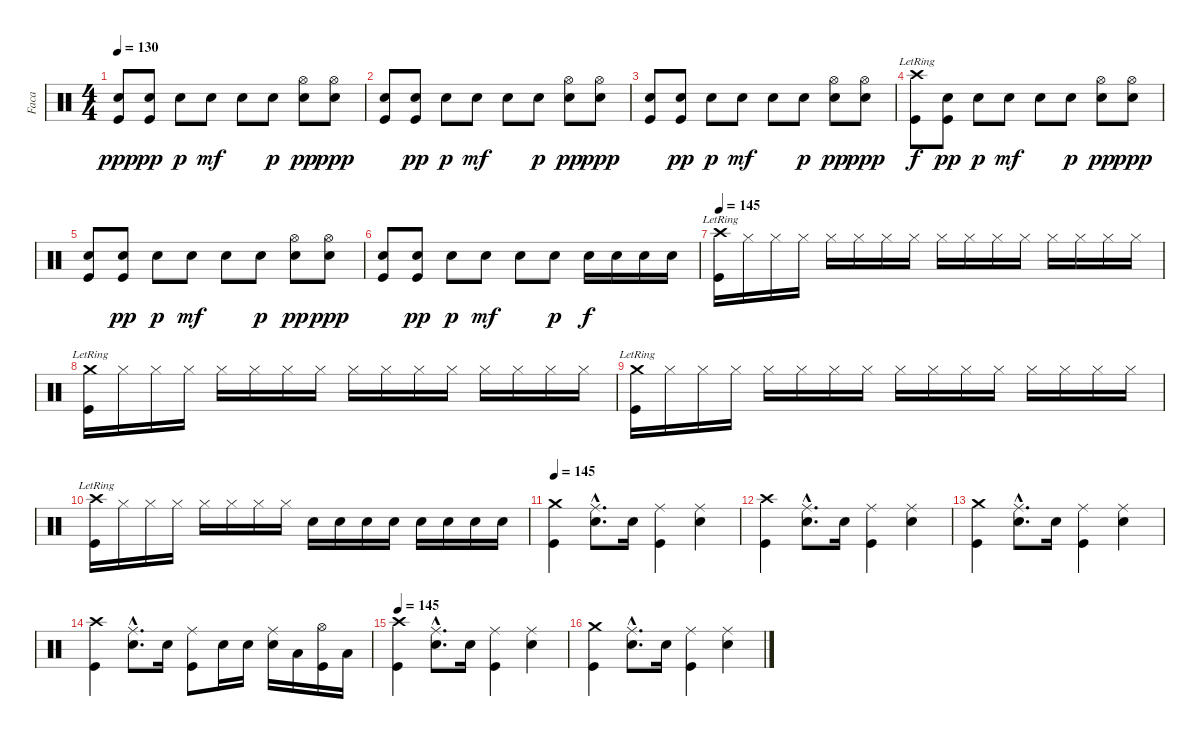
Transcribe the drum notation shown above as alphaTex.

\track ("Faca" "Faca") {instrument percussion}
\staff {score}
\articulation defaults
\ts (4 4)
\tempo 130
\clef neutral
\ks c
("Snare (hit) 2" "Kick (hit)").8{dy ppp} ("Snare (hit) 2" "Kick (hit)").8{dy pp} "Snare (hit) 2".8{dy p} "Snare (hit) 2".8{dy mf} "Snare (hit) 2".8 "Snare (hit) 2".8{dy p} ("Hi-Hat (open)" "Snare (hit) 2").8{dy pp} ("Hi-Hat (open)" "Snare (hit) 2").8{dy ppp} |
("Snare (hit) 2" "Kick (hit)").8 ("Snare (hit) 2" "Kick (hit)").8{dy pp} "Snare (hit) 2".8{dy p} "Snare (hit) 2".8{dy mf} "Snare (hit) 2".8 "Snare (hit) 2".8{dy p} ("Hi-Hat (open)" "Snare (hit) 2").8{dy pp} ("Hi-Hat (open)" "Snare (hit) 2").8{dy ppp} |
("Snare (hit) 2" "Kick (hit)").8 ("Snare (hit) 2" "Kick (hit)").8{dy pp} "Snare (hit) 2".8{dy p} "Snare (hit) 2".8{dy mf} "Snare (hit) 2".8 "Snare (hit) 2".8{dy p} ("Hi-Hat (open)" "Snare (hit) 2").8{dy pp} ("Hi-Hat (open)" "Snare (hit) 2").8{dy ppp} |
("Crash high (hit)"{lr} "Kick (hit)").8{dy f} ("Snare (hit) 2" "Kick (hit)").8{dy pp} "Snare (hit) 2".8{dy p} "Snare (hit) 2".8{dy mf} "Snare (hit) 2".8 "Snare (hit) 2".8{dy p} ("Hi-Hat (open)" "Snare (hit) 2").8{dy pp} ("Hi-Hat (open)" "Snare (hit) 2").8{dy ppp} |
("Snare (hit) 2" "Kick (hit)").8 ("Snare (hit) 2" "Kick (hit)").8{dy pp} "Snare (hit) 2".8{dy p} "Snare (hit) 2".8{dy mf} "Snare (hit) 2".8 "Snare (hit) 2".8{dy p} ("Hi-Hat (open)" "Snare (hit) 2").8{dy pp} ("Hi-Hat (open)" "Snare (hit) 2").8{dy ppp} |
("Snare (hit) 2" "Kick (hit)").8 ("Snare (hit) 2" "Kick (hit)").8{dy pp} "Snare (hit) 2".8{dy p} "Snare (hit) 2".8{dy mf} "Snare (hit) 2".8 "Snare (hit) 2".8{dy p} "Snare (hit) 2".16{dy f} "Snare (hit) 2".16 "Snare (hit) 2".16 "Snare (hit) 2".16 |
\tempo 145
("Crash high (hit)"{lr} "Kick (hit)").16 "Hi-Hat (closed)".16 "Hi-Hat (closed)".16 "Hi-Hat (closed)".16 "Hi-Hat (closed)".16 "Hi-Hat (closed)".16 "Hi-Hat (closed)".16 "Hi-Hat (closed)".16 "Hi-Hat (closed)".16 "Hi-Hat (closed)".16 "Hi-Hat (closed)".16 "Hi-Hat (closed)".16 "Hi-Hat (closed)".16 "Hi-Hat (closed)".16 "Hi-Hat (closed)".16 "Hi-Hat (closed)".16 |
("Crash medium (hit)"{lr} "Kick (hit)").16 "Hi-Hat (closed)".16 "Hi-Hat (closed)".16 "Hi-Hat (closed)".16 "Hi-Hat (closed)".16 "Hi-Hat (closed)".16 "Hi-Hat (closed)".16 "Hi-Hat (closed)".16 "Hi-Hat (closed)".16 "Hi-Hat (closed)".16 "Hi-Hat (closed)".16 "Hi-Hat (closed)".16 "Hi-Hat (closed)".16 "Hi-Hat (closed)".16 "Hi-Hat (closed)".16 "Hi-Hat (closed)".16 |
("Crash medium (hit)"{lr} "Kick (hit)").16 "Hi-Hat (closed)".16 "Hi-Hat (closed)".16 "Hi-Hat (closed)".16 "Hi-Hat (closed)".16 "Hi-Hat (closed)".16 "Hi-Hat (closed)".16 "Hi-Hat (closed)".16 "Hi-Hat (closed)".16 "Hi-Hat (closed)".16 "Hi-Hat (closed)".16 "Hi-Hat (closed)".16 "Hi-Hat (closed)".16 "Hi-Hat (closed)".16 "Hi-Hat (closed)".16 "Hi-Hat (closed)".16 |
("Crash high (hit)"{lr} "Kick (hit)").16 "Hi-Hat (closed)".16 "Hi-Hat (closed)".16 "Hi-Hat (closed)".16 "Hi-Hat (closed)".16 "Hi-Hat (closed)".16 "Hi-Hat (closed)".16 "Hi-Hat (closed)".16 "Snare (hit) 2".16 "Snare (hit) 2".16 "Snare (hit) 2".16 "Snare (hit) 2".16 "Snare (hit) 2".16 "Snare (hit) 2".16 "Snare (hit) 2".16 "Snare (hit) 2".16 |
\tempo 145
("Crash medium (hit)" "Kick (hit)").4 ("Ride (middle)"{hac} "Snare (hit) 2"{hac}).8{d} "Snare (hit) 2".16 ("Ride (middle)" "Kick (hit)").4 ("Ride (middle)" "Snare (hit) 2").4 |
("Crash high (hit)" "Kick (hit)").4 ("Ride (middle)"{hac} "Snare (hit) 2"{hac}).8{d} "Snare (hit) 2".16 ("Ride (middle)" "Kick (hit)").4 ("Ride (middle)" "Snare (hit) 2").4 |
("Crash medium (hit)" "Kick (hit)").4 ("Ride (middle)"{hac} "Snare (hit) 2"{hac}).8{d} "Snare (hit) 2".16 ("Ride (middle)" "Kick (hit)").4 ("Ride (middle)" "Snare (hit) 2").4 |
("Crash high (hit)" "Kick (hit)").4 ("Ride (middle)"{hac} "Snare (hit) 2"{hac}).8{d} "Snare (hit) 2".16 ("Ride (middle)" "Kick (hit)").8 "Snare (hit) 2".16 "Snare (hit) 2".16 ("Ride (middle)" "Snare (hit) 2").16 "Low Tom (hit)".16 ("Hi-Hat (open)" "Kick (hit)").16 "Low Floor Tom (hit)".16 |
\tempo 145
("Crash high (hit)" "Kick (hit)").4 ("Ride (middle)"{hac} "Snare (hit) 2"{hac}).8{d} "Snare (hit) 2".16 ("Ride (middle)" "Kick (hit)").4 ("Ride (middle)" "Snare (hit) 2").4 |
("Crash medium (hit)" "Kick (hit)").4 ("Ride (middle)"{hac} "Snare (hit) 2"{hac}).8{d} "Snare (hit) 2".16 ("Ride (middle)" "Kick (hit)").4 ("Ride (middle)" "Snare (hit) 2").4
